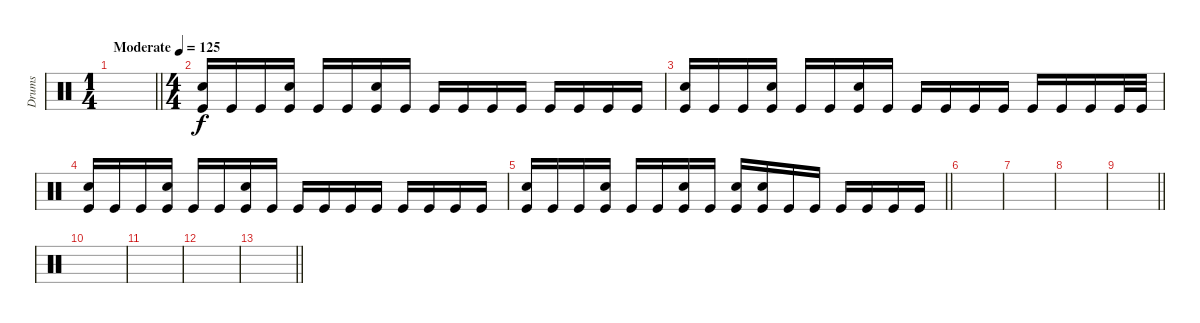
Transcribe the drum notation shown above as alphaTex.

\track ("Drums" "Drums") {instrument percussion}
\staff
\articulation defaults
\ts (1 4)
\tempo (125 "Moderate")
\clef neutral
\barLineRight lightlight
\ks c
|
\ts (4 4)
("Electric Snare (hit)" "Kick (hit)").16 "Kick (hit)".16 "Kick (hit)".16 ("Electric Snare (hit)" "Kick (hit)").16 "Kick (hit)".16 "Kick (hit)".16 ("Electric Snare (hit)" "Kick (hit)").16 "Kick (hit)".16 "Kick (hit)".16 "Kick (hit)".16 "Kick (hit)".16 "Kick (hit)".16 "Kick (hit)".16 "Kick (hit)".16 "Kick (hit)".16 "Kick (hit)".16 |
("Electric Snare (hit)" "Kick (hit)").16 "Kick (hit)".16 "Kick (hit)".16 ("Electric Snare (hit)" "Kick (hit)").16 "Kick (hit)".16 "Kick (hit)".16 ("Electric Snare (hit)" "Kick (hit)").16 "Kick (hit)".16 "Kick (hit)".16 "Kick (hit)".16 "Kick (hit)".16 "Kick (hit)".16 "Kick (hit)".16 "Kick (hit)".16 "Kick (hit)".16 "Kick (hit)".32 "Kick (hit)".32 |
("Electric Snare (hit)" "Kick (hit)").16 "Kick (hit)".16 "Kick (hit)".16 ("Electric Snare (hit)" "Kick (hit)").16 "Kick (hit)".16 "Kick (hit)".16 ("Electric Snare (hit)" "Kick (hit)").16 "Kick (hit)".16 "Kick (hit)".16 "Kick (hit)".16 "Kick (hit)".16 "Kick (hit)".16 "Kick (hit)".16 "Kick (hit)".16 "Kick (hit)".16 "Kick (hit)".16 |
\barLineRight lightlight
("Electric Snare (hit)" "Kick (hit)").16 "Kick (hit)".16 "Kick (hit)".16 ("Electric Snare (hit)" "Kick (hit)").16 "Kick (hit)".16 "Kick (hit)".16 ("Electric Snare (hit)" "Kick (hit)").16 "Kick (hit)".16 ("Electric Snare (hit)" "Kick (hit)").16 ("Electric Snare (hit)" "Kick (hit)").16 "Kick (hit)".16 "Kick (hit)".16 "Kick (hit)".16 "Kick (hit)".16 "Kick (hit)".16 "Kick (hit)".16 |
|
|
|
\barLineRight lightlight
|
|
|
|
\barLineRight lightlight
